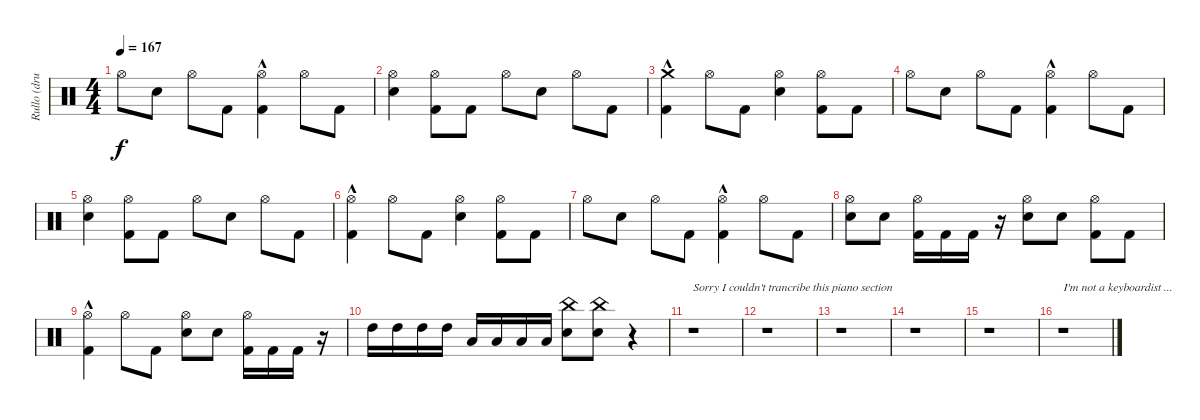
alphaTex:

\track ("Rullo (drums)" "Rullo (dru") {instrument percussion}
\staff {score}
\articulation defaults
\ts (4 4)
\tempo 167
\clef neutral
\ks c "Hi-Hat (open)".8{dy f} "Electric Snare (hit)".8 "Hi-Hat (open)".8 "Kick (hit) 2".8
("Hi-Hat (open)" "Kick (hit) 2"{hac}).4 "Hi-Hat (open)".8 "Kick (hit) 2".8 |
("Hi-Hat (open)" "Electric Snare (hit)").4 ("Hi-Hat (open)" "Kick (hit) 2").8 "Kick (hit) 2".8 "Hi-Hat (open)".8 "Electric Snare (hit)".8 "Hi-Hat (open)".8 "Kick (hit) 2".8 |
("Crash medium (hit)" "Kick (hit) 2"{hac}).4 "Hi-Hat (open)".8 "Kick (hit) 2".8 ("Hi-Hat (open)" "Electric Snare (hit)").4 ("Hi-Hat (open)" "Kick (hit) 2").8 "Kick (hit) 2".8 |
"Hi-Hat (open)".8 "Electric Snare (hit)".8 "Hi-Hat (open)".8 "Kick (hit) 2".8 ("Hi-Hat (open)" "Kick (hit) 2"{hac}).4 "Hi-Hat (open)".8 "Kick (hit) 2".8 |
("Hi-Hat (open)" "Electric Snare (hit)").4 ("Hi-Hat (open)" "Kick (hit) 2").8 "Kick (hit) 2".8 "Hi-Hat (open)".8 "Electric Snare (hit)".8 "Hi-Hat (open)".8 "Kick (hit) 2".8 |
("Hi-Hat (open)" "Kick (hit) 2"{hac}).4 "Hi-Hat (open)".8 "Kick (hit) 2".8 ("Hi-Hat (open)" "Electric Snare (hit)").4 ("Hi-Hat (open)" "Kick (hit) 2").8 "Kick (hit) 2".8 |
"Hi-Hat (open)".8 "Electric Snare (hit)".8 "Hi-Hat (open)".8 "Kick (hit) 2".8 ("Hi-Hat (open)" "Kick (hit) 2"{hac}).4 "Hi-Hat (open)".8 "Kick (hit) 2".8 |
("Hi-Hat (open)" "Electric Snare (hit)").8 "Electric Snare (hit)".8 ("Kick (hit) 2" "Hi-Hat (open)").16 "Kick (hit) 2".16 "Kick (hit) 2".16 r.16 ("Electric Snare (hit)" "Hi-Hat (open)").8 "Electric Snare (hit)".8 ("Kick (hit) 2" "Hi-Hat (open)").8 "Kick (hit) 2".8 |
("Hi-Hat (open)" "Kick (hit) 2"{hac}).4 "Hi-Hat (open)".8 "Kick (hit) 2".8 ("Hi-Hat (open)" "Electric Snare (hit)").8 "Electric Snare (hit)".8 ("Kick (hit) 2" "Hi-Hat (open)").16 "Kick (hit) 2".16 "Kick (hit) 2".16 r.16 |
"High Tom (hit)".16 "High Tom (hit)".16 "High Tom (hit)".16 "High Tom (hit)".16 "Low Tom (hit)".16 "Low Tom (hit)".16 "Low Tom (hit)".16 "Low Tom (hit)".16 ("China (hit)" "Electric Snare (hit)").8 ("China (hit)" "Electric Snare (hit)").8 r.4 |
r.1{txt "Sorry I couldn't trancribe this piano section"} |
r.1 |
r.1 |
r.1 |
r.1 |
r.1{txt "I'm not a keyboardist ..."}
